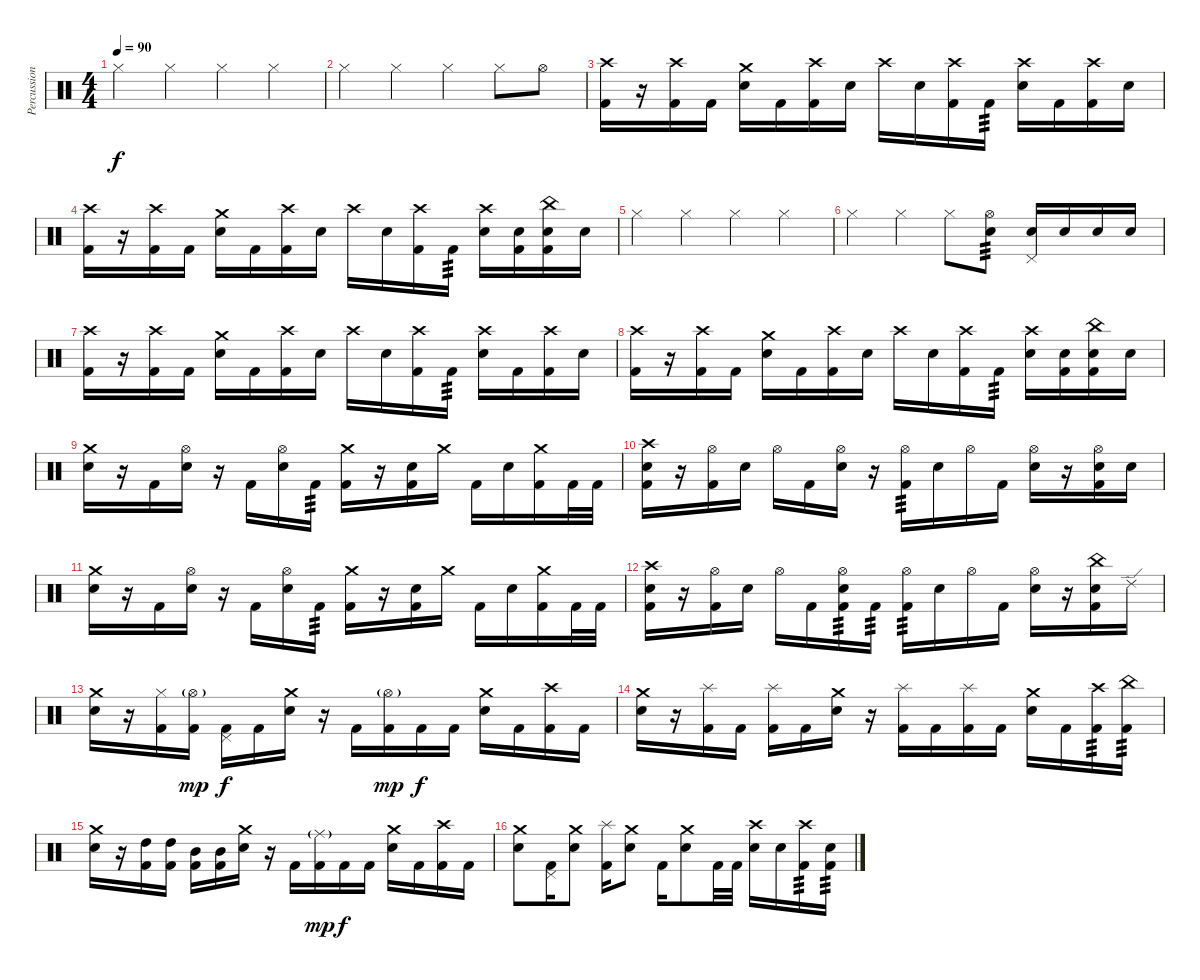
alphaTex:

\track ("Percussion" "Percussion") {instrument percussion}
\staff {score}
\articulation defaults
\ts (4 4)
\tempo 90
\clef neutral
\ks c "Hi-Hat (closed)".4{dy f} "Hi-Hat (closed)".4 "Hi-Hat (closed)".4 "Hi-Hat (closed)".4
|
"Hi-Hat (closed)".4 "Hi-Hat (closed)".4 "Hi-Hat (closed)".4 "Hi-Hat (closed)".8 "Hi-Hat (open)".8 |
("Crash high (hit)" "Kick (hit) 2").16 r.16 ("Crash high (hit)" "Kick (hit) 2").16 "Kick (hit) 2".16 ("Crash medium (hit)" "Electric Snare (hit)").16 "Kick (hit) 2".16 ("Crash high (hit)" "Kick (hit) 2").16 "Electric Snare (hit)".16 "Crash high (hit)".16 "Electric Snare (hit)".16 ("Crash high (hit)" "Kick (hit) 2").16 "Kick (hit) 2".16{tp 3} ("Crash high (hit)" "Electric Snare (hit)").16 "Kick (hit) 2".16 ("Crash high (hit)" "Kick (hit) 2").16 "Electric Snare (hit)".16 |
("Crash high (hit)" "Kick (hit) 2").16 r.16 ("Crash high (hit)" "Kick (hit) 2").16 "Kick (hit) 2".16 ("Crash medium (hit)" "Electric Snare (hit)").16 "Kick (hit) 2".16 ("Crash high (hit)" "Kick (hit) 2").16 "Electric Snare (hit)".16 "Crash high (hit)".16 "Electric Snare (hit)".16 ("Crash high (hit)" "Kick (hit) 2").16 "Kick (hit) 2".16{tp 3} ("Crash high (hit)" "Electric Snare (hit)").16 ("Electric Snare (hit)" "Kick (hit) 2").16 ("China (hit)" "Electric Snare (hit)" "Kick (hit) 2").16 "Electric Snare (hit)".16 |
"Hi-Hat (closed)".4 "Hi-Hat (closed)".4 "Hi-Hat (closed)".4 "Hi-Hat (closed)".4 |
"Hi-Hat (closed)".4 "Hi-Hat (closed)".4 "Hi-Hat (closed)".8 ("Hi-Hat (open)" "Electric Snare (hit)").8{tp 3} ("Pedal Hi-Hat (hit)" "Electric Snare (hit)").16 "Electric Snare (hit)".16 "Electric Snare (hit)".16 "Electric Snare (hit)".16 |
("Crash high (hit)" "Kick (hit) 2").16 r.16 ("Crash high (hit)" "Kick (hit) 2").16 "Kick (hit) 2".16 ("Crash medium (hit)" "Electric Snare (hit)").16 "Kick (hit) 2".16 ("Crash high (hit)" "Kick (hit) 2").16 "Electric Snare (hit)".16 "Crash high (hit)".16 "Electric Snare (hit)".16 ("Crash high (hit)" "Kick (hit) 2").16 "Kick (hit) 2".16{tp 3} ("Crash high (hit)" "Electric Snare (hit)").16 "Kick (hit) 2".16 ("Crash high (hit)" "Kick (hit) 2").16 "Electric Snare (hit)".16 |
("Crash high (hit)" "Kick (hit) 2").16 r.16 ("Crash high (hit)" "Kick (hit) 2").16 "Kick (hit) 2".16 ("Crash medium (hit)" "Electric Snare (hit)").16 "Kick (hit) 2".16 ("Crash high (hit)" "Kick (hit) 2").16 "Electric Snare (hit)".16 "Crash high (hit)".16 "Electric Snare (hit)".16 ("Crash high (hit)" "Kick (hit) 2").16 "Kick (hit) 2".16{tp 3} ("Crash high (hit)" "Electric Snare (hit)").16 ("Electric Snare (hit)" "Kick (hit) 2").16 ("China (hit)" "Electric Snare (hit)" "Kick (hit) 2").16 "Electric Snare (hit)".16 |
("Crash medium (hit)" "Electric Snare (hit)").16 r.16 "Kick (hit) 2".16 ("Hi-Hat (open)" "Electric Snare (hit)").16 r.16 "Kick (hit) 2".16 ("Hi-Hat (open)" "Electric Snare (hit)").16 "Kick (hit) 2".16{tp 3} ("Crash medium (hit)" "Kick (hit) 2").16 r.16 ("Electric Snare (hit)" "Kick (hit) 2").16 "Crash medium (hit)".16 "Kick (hit) 2".16 "Electric Snare (hit)".16 ("Crash medium (hit)" "Kick (hit) 2").16 "Kick (hit) 2".32 "Kick (hit) 2".32 |
("Crash high (hit)" "Electric Snare (hit)" "Kick (hit) 2").16 r.16 ("Hi-Hat (open)" "Kick (hit) 2").16 "Electric Snare (hit)".16 "Hi-Hat (open)".16 "Kick (hit) 2".16 ("Hi-Hat (open)" "Electric Snare (hit)").16 r.16 ("Hi-Hat (open)" "Kick (hit) 2").16{tp 3} "Electric Snare (hit)".16 "Hi-Hat (open)".16 "Kick (hit) 2".16 ("Hi-Hat (open)" "Electric Snare (hit)").16 r.16 ("Hi-Hat (open)" "Electric Snare (hit)" "Kick (hit) 2").16 "Electric Snare (hit)".16 |
("Crash medium (hit)" "Electric Snare (hit)").16 r.16 "Kick (hit) 2".16 ("Hi-Hat (open)" "Electric Snare (hit)").16 r.16 "Kick (hit) 2".16 ("Hi-Hat (open)" "Electric Snare (hit)").16 "Kick (hit) 2".16{tp 3} ("Crash medium (hit)" "Kick (hit) 2").16 r.16 ("Electric Snare (hit)" "Kick (hit) 2").16 "Crash medium (hit)".16 "Kick (hit) 2".16 "Electric Snare (hit)".16 ("Crash medium (hit)" "Kick (hit) 2").16 "Kick (hit) 2".32 "Kick (hit) 2".32 |
("Crash high (hit)" "Electric Snare (hit)" "Kick (hit) 2").16 r.16 ("Hi-Hat (open)" "Kick (hit) 2").16 "Electric Snare (hit)".16 "Hi-Hat (open)".16 "Kick (hit) 2".16 ("Hi-Hat (open)" "Electric Snare (hit)" "Kick (hit) 2").16{tp 3} "Kick (hit) 2".16{tp 3} ("Hi-Hat (open)" "Kick (hit) 2").16{tp 3} "Electric Snare (hit)".16 "Hi-Hat (open)".16 "Kick (hit) 2".16 ("Hi-Hat (open)" "Electric Snare (hit)").16 r.16 ("China (hit)" "Electric Snare (hit)" "Kick (hit) 2").16 "Ride (edge) 2".16 |
("Crash medium (hit)" "Electric Snare (hit)").16 r.16 ("Hi-Hat (closed)" "Kick (hit) 2").16 ("Hi-Hat (open)"{g} "Kick (hit) 2").16{dy mp} ("Pedal Hi-Hat (hit)" "Kick (hit) 2").16{dy f} "Kick (hit) 2".16 ("Crash medium (hit)" "Electric Snare (hit)").16 r.16 "Kick (hit) 2".16 ("Hi-Hat (open)"{g} "Kick (hit) 2").16{dy mp} "Kick (hit) 2".16{dy f} "Kick (hit) 2".16 ("Crash medium (hit)" "Electric Snare (hit)").16 "Kick (hit) 2".16 ("Crash high (hit)" "Kick (hit) 2").16 "Kick (hit) 2".16 |
("Crash medium (hit)" "Electric Snare (hit)").16 r.16 ("Splash (hit)" "Kick (hit) 2").16 "Kick (hit) 2".16 ("Splash (hit)" "Kick (hit) 2").16 "Kick (hit) 2".16 ("Crash medium (hit)" "Electric Snare (hit)").16 r.16 ("Splash (hit)" "Kick (hit) 2").16 "Kick (hit) 2".16 ("Splash (hit)" "Kick (hit) 2").16 "Kick (hit) 2".16 ("Crash medium (hit)" "Electric Snare (hit)").16 "Kick (hit) 2".16 ("Crash high (hit)" "Kick (hit) 2").16{tp 3} ("China (hit)" "Kick (hit) 2").16{tp 3} |
("Crash medium (hit)" "Electric Snare (hit)").16 r.16 ("High Tom (hit)" "Kick (hit) 2").16 ("High Tom (hit)" "Kick (hit) 2").16 ("Mid Tom (hit)" "Kick (hit) 2").16 ("Mid Tom (hit)" "Kick (hit) 2").16 ("Crash medium (hit)" "Electric Snare (hit)").16 r.16 "Kick (hit) 2".16 ("Ride (middle)"{g} "Kick (hit) 2").16{dy mp} "Kick (hit) 2".16{dy f} "Kick (hit) 2".16 ("Crash medium (hit)" "Electric Snare (hit)").16 "Kick (hit) 2".16 ("Crash high (hit)" "Kick (hit) 2").16 "Kick (hit) 2".16 |
("Crash medium (hit)" "Electric Snare (hit)").8 ("Pedal Hi-Hat (hit)" "Kick (hit) 2").16 ("Crash medium (hit)" "Electric Snare (hit)").8 ("Splash (hit)" "Kick (hit) 2").16 ("Crash medium (hit)" "Electric Snare (hit)").8 "Kick (hit) 2".16 ("Crash medium (hit)" "Electric Snare (hit)").8 "Kick (hit) 2".32 "Kick (hit) 2".32 ("Crash high (hit)" "Electric Snare (hit)").16 "Electric Snare (hit)".16 ("Crash high (hit)" "Kick (hit) 2").16{tp 3} ("Electric Snare (hit)" "Kick (hit) 2").16{tp 3}
